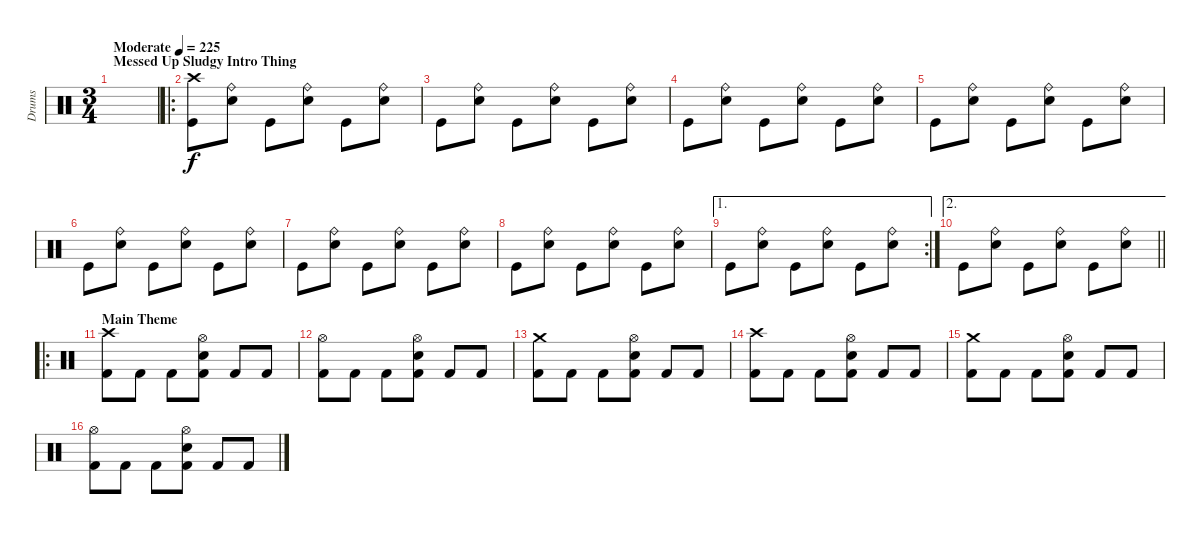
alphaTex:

\track ("Drums" "Drums") {instrument percussion}
\staff {score}
\articulation defaults
\ts (3 4)
\section ("" "Messed Up Sludgy Intro Thing")
\tempo (225 "Moderate")
\clef neutral
\ks c
|
\ro
("Crash high (hit)" "Kick (hit)").8 ("Ride (bell)" "Electric Snare (hit)").8 "Kick (hit)".8 ("Ride (bell)" "Electric Snare (hit)").8 "Kick (hit)".8 ("Ride (bell)" "Electric Snare (hit)").8 |
"Kick (hit)".8 ("Ride (bell)" "Electric Snare (hit)").8 "Kick (hit)".8 ("Ride (bell)" "Electric Snare (hit)").8 "Kick (hit)".8 ("Ride (bell)" "Electric Snare (hit)").8 |
"Kick (hit)".8 ("Ride (bell)" "Electric Snare (hit)").8 "Kick (hit)".8 ("Ride (bell)" "Electric Snare (hit)").8 "Kick (hit)".8 ("Ride (bell)" "Electric Snare (hit)").8 |
"Kick (hit)".8 ("Ride (bell)" "Electric Snare (hit)").8 "Kick (hit)".8 ("Ride (bell)" "Electric Snare (hit)").8 "Kick (hit)".8 ("Ride (bell)" "Electric Snare (hit)").8 |
"Kick (hit)".8 ("Ride (bell)" "Electric Snare (hit)").8 "Kick (hit)".8 ("Ride (bell)" "Electric Snare (hit)").8 "Kick (hit)".8 ("Ride (bell)" "Electric Snare (hit)").8 |
"Kick (hit)".8 ("Ride (bell)" "Electric Snare (hit)").8 "Kick (hit)".8 ("Ride (bell)" "Electric Snare (hit)").8 "Kick (hit)".8 ("Ride (bell)" "Electric Snare (hit)").8 |
"Kick (hit)".8 ("Ride (bell)" "Electric Snare (hit)").8 "Kick (hit)".8 ("Ride (bell)" "Electric Snare (hit)").8 "Kick (hit)".8 ("Ride (bell)" "Electric Snare (hit)").8 |
\ae 1
\rc 2 "Kick (hit)".8
("Ride (bell)" "Electric Snare (hit)").8 "Kick (hit)".8 ("Ride (bell)" "Electric Snare (hit)").8 "Kick (hit)".8 ("Ride (bell)" "Electric Snare (hit)").8 |
\ae 2
\barLineRight lightlight "Kick (hit)".8
("Ride (bell)" "Electric Snare (hit)").8 "Kick (hit)".8 ("Ride (bell)" "Electric Snare (hit)").8 "Kick (hit)".8 ("Ride (bell)" "Electric Snare (hit)").8 |
\ro
\section ("" "Main Theme")
("Crash high (hit)" "Kick (hit) 2").8{volume 11} "Kick (hit) 2".8 "Kick (hit) 2".8 ("Hi-Hat (open)" "Electric Snare (hit)" "Kick (hit) 2").8 "Kick (hit) 2".8 "Kick (hit) 2".8 |
("Hi-Hat (open)" "Kick (hit) 2").8 "Kick (hit) 2".8 "Kick (hit) 2".8 ("Hi-Hat (open)" "Electric Snare (hit)" "Kick (hit) 2").8 "Kick (hit) 2".8 "Kick (hit) 2".8 |
("Crash medium (hit)" "Kick (hit) 2").8 "Kick (hit) 2".8 "Kick (hit) 2".8 ("Hi-Hat (open)" "Electric Snare (hit)" "Kick (hit) 2").8 "Kick (hit) 2".8 "Kick (hit) 2".8 |
("Crash high (hit)" "Kick (hit) 2").8 "Kick (hit) 2".8 "Kick (hit) 2".8 ("Hi-Hat (open)" "Electric Snare (hit)" "Kick (hit) 2").8 "Kick (hit) 2".8 "Kick (hit) 2".8 |
("Crash medium (hit)" "Kick (hit) 2").8 "Kick (hit) 2".8 "Kick (hit) 2".8 ("Hi-Hat (open)" "Electric Snare (hit)" "Kick (hit) 2").8 "Kick (hit) 2".8 "Kick (hit) 2".8 |
("Hi-Hat (open)" "Kick (hit) 2").8 "Kick (hit) 2".8 "Kick (hit) 2".8 ("Hi-Hat (open)" "Electric Snare (hit)" "Kick (hit) 2").8 "Kick (hit) 2".8 "Kick (hit) 2".8
